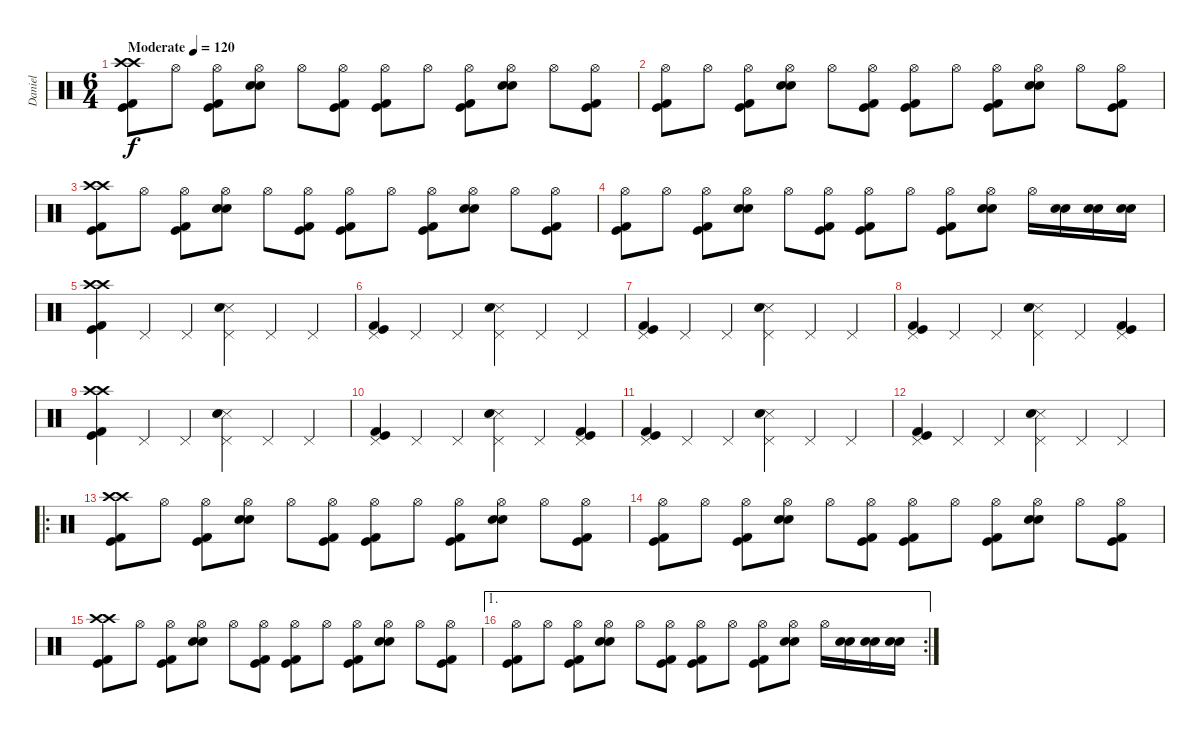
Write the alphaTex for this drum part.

\track ("Daniel" "Daniel") {instrument percussion}
\staff {score}
\articulation defaults
\ts (6 4)
\tempo (120 "Moderate")
\clef neutral
\ks c
("Crash high (hit)" "Crash high (hit)" "Kick (hit) 2" "Kick (hit)").8{dy f} "Hi-Hat (open)".8 ("Hi-Hat (open)" "Kick (hit) 2" "Kick (hit)").8 ("Hi-Hat (open)" "Snare (hit) 2" "Electric Snare (hit)").8 "Hi-Hat (open)".8 ("Hi-Hat (open)" "Kick (hit) 2" "Kick (hit)").8 ("Hi-Hat (open)" "Kick (hit) 2" "Kick (hit)").8 "Hi-Hat (open)".8 ("Hi-Hat (open)" "Kick (hit) 2" "Kick (hit)").8 ("Hi-Hat (open)" "Snare (hit) 2" "Electric Snare (hit)").8 "Hi-Hat (open)".8 ("Hi-Hat (open)" "Kick (hit) 2" "Kick (hit)").8 |
("Hi-Hat (open)" "Kick (hit) 2" "Kick (hit)").8 "Hi-Hat (open)".8 ("Hi-Hat (open)" "Kick (hit) 2" "Kick (hit)").8 ("Hi-Hat (open)" "Snare (hit) 2" "Electric Snare (hit)").8 "Hi-Hat (open)".8 ("Hi-Hat (open)" "Kick (hit) 2" "Kick (hit)").8 ("Hi-Hat (open)" "Kick (hit) 2" "Kick (hit)").8 "Hi-Hat (open)".8 ("Hi-Hat (open)" "Kick (hit) 2" "Kick (hit)").8 ("Hi-Hat (open)" "Snare (hit) 2" "Electric Snare (hit)").8 "Hi-Hat (open)".8 ("Hi-Hat (open)" "Kick (hit) 2" "Kick (hit)").8 |
("Crash high (hit)" "Crash high (hit)" "Kick (hit) 2" "Kick (hit)").8 "Hi-Hat (open)".8 ("Hi-Hat (open)" "Kick (hit) 2" "Kick (hit)").8 ("Hi-Hat (open)" "Snare (hit) 2" "Electric Snare (hit)").8 "Hi-Hat (open)".8 ("Hi-Hat (open)" "Kick (hit) 2" "Kick (hit)").8 ("Hi-Hat (open)" "Kick (hit) 2" "Kick (hit)").8 "Hi-Hat (open)".8 ("Hi-Hat (open)" "Kick (hit) 2" "Kick (hit)").8 ("Hi-Hat (open)" "Snare (hit) 2" "Electric Snare (hit)").8 "Hi-Hat (open)".8 ("Hi-Hat (open)" "Kick (hit) 2" "Kick (hit)").8 |
("Hi-Hat (open)" "Kick (hit) 2" "Kick (hit)").8 "Hi-Hat (open)".8 ("Hi-Hat (open)" "Kick (hit) 2" "Kick (hit)").8 ("Hi-Hat (open)" "Snare (hit) 2" "Electric Snare (hit)").8 "Hi-Hat (open)".8 ("Hi-Hat (open)" "Kick (hit) 2" "Kick (hit)").8 ("Hi-Hat (open)" "Kick (hit) 2" "Kick (hit)").8 "Hi-Hat (open)".8 ("Hi-Hat (open)" "Kick (hit) 2" "Kick (hit)").8 ("Hi-Hat (open)" "Snare (hit) 2" "Electric Snare (hit)").8 "Hi-Hat (open)".16 ("Snare (hit) 2" "Electric Snare (hit)").16 ("Snare (hit) 2" "Electric Snare (hit)").16 ("Snare (hit) 2" "Electric Snare (hit)").16 |
("Crash high (hit)" "Crash high (hit)" "Kick (hit) 2" "Kick (hit)").4 "Pedal Hi-Hat (hit)".4 "Pedal Hi-Hat (hit)".4 ("Pedal Hi-Hat (hit)" "Snare (side stick) 3" "Electric Snare (hit)").4 "Pedal Hi-Hat (hit)".4 "Pedal Hi-Hat (hit)".4 |
("Pedal Hi-Hat (hit)" "Kick (hit) 2" "Kick (hit)").4 "Pedal Hi-Hat (hit)".4 "Pedal Hi-Hat (hit)".4 ("Pedal Hi-Hat (hit)" "Snare (side stick) 3" "Electric Snare (hit)").4 "Pedal Hi-Hat (hit)".4 "Pedal Hi-Hat (hit)".4 |
("Pedal Hi-Hat (hit)" "Kick (hit) 2" "Kick (hit)").4 "Pedal Hi-Hat (hit)".4 "Pedal Hi-Hat (hit)".4 ("Pedal Hi-Hat (hit)" "Snare (side stick) 3" "Electric Snare (hit)").4 "Pedal Hi-Hat (hit)".4 "Pedal Hi-Hat (hit)".4 |
("Pedal Hi-Hat (hit)" "Kick (hit) 2" "Kick (hit)").4 "Pedal Hi-Hat (hit)".4 "Pedal Hi-Hat (hit)".4 ("Pedal Hi-Hat (hit)" "Snare (side stick) 3" "Electric Snare (hit)").4 "Pedal Hi-Hat (hit)".4 ("Pedal Hi-Hat (hit)" "Kick (hit) 2" "Kick (hit)").4 |
("Crash high (hit)" "Crash high (hit)" "Kick (hit) 2" "Kick (hit)").4 "Pedal Hi-Hat (hit)".4 "Pedal Hi-Hat (hit)".4 ("Pedal Hi-Hat (hit)" "Snare (side stick) 3" "Electric Snare (hit)").4 "Pedal Hi-Hat (hit)".4 "Pedal Hi-Hat (hit)".4 |
("Pedal Hi-Hat (hit)" "Kick (hit) 2" "Kick (hit)").4 "Pedal Hi-Hat (hit)".4 "Pedal Hi-Hat (hit)".4 ("Pedal Hi-Hat (hit)" "Snare (side stick) 3" "Electric Snare (hit)").4 "Pedal Hi-Hat (hit)".4 ("Pedal Hi-Hat (hit)" "Kick (hit) 2" "Kick (hit)").4 |
("Pedal Hi-Hat (hit)" "Kick (hit) 2" "Kick (hit)").4 "Pedal Hi-Hat (hit)".4 "Pedal Hi-Hat (hit)".4 ("Pedal Hi-Hat (hit)" "Snare (side stick) 3" "Electric Snare (hit)").4 "Pedal Hi-Hat (hit)".4 "Pedal Hi-Hat (hit)".4 |
("Pedal Hi-Hat (hit)" "Kick (hit) 2" "Kick (hit)").4 "Pedal Hi-Hat (hit)".4 "Pedal Hi-Hat (hit)".4 ("Pedal Hi-Hat (hit)" "Snare (side stick) 3" "Electric Snare (hit)").4 "Pedal Hi-Hat (hit)".4 "Pedal Hi-Hat (hit)".4 |
\ro
("Crash high (hit)" "Crash high (hit)" "Kick (hit) 2" "Kick (hit)").8 "Hi-Hat (open)".8 ("Hi-Hat (open)" "Kick (hit) 2" "Kick (hit)").8 ("Hi-Hat (open)" "Snare (hit) 2" "Electric Snare (hit)").8 "Hi-Hat (open)".8 ("Hi-Hat (open)" "Kick (hit) 2" "Kick (hit)").8 ("Hi-Hat (open)" "Kick (hit) 2" "Kick (hit)").8 "Hi-Hat (open)".8 ("Hi-Hat (open)" "Kick (hit) 2" "Kick (hit)").8 ("Hi-Hat (open)" "Snare (hit) 2" "Electric Snare (hit)").8 "Hi-Hat (open)".8 ("Hi-Hat (open)" "Kick (hit) 2" "Kick (hit)").8 |
("Hi-Hat (open)" "Kick (hit) 2" "Kick (hit)").8 "Hi-Hat (open)".8 ("Hi-Hat (open)" "Kick (hit) 2" "Kick (hit)").8 ("Hi-Hat (open)" "Snare (hit) 2" "Electric Snare (hit)").8 "Hi-Hat (open)".8 ("Hi-Hat (open)" "Kick (hit) 2" "Kick (hit)").8 ("Hi-Hat (open)" "Kick (hit) 2" "Kick (hit)").8 "Hi-Hat (open)".8 ("Hi-Hat (open)" "Kick (hit) 2" "Kick (hit)").8 ("Hi-Hat (open)" "Snare (hit) 2" "Electric Snare (hit)").8 "Hi-Hat (open)".8 ("Hi-Hat (open)" "Kick (hit) 2" "Kick (hit)").8 |
("Crash high (hit)" "Crash high (hit)" "Kick (hit) 2" "Kick (hit)").8 "Hi-Hat (open)".8 ("Hi-Hat (open)" "Kick (hit) 2" "Kick (hit)").8 ("Hi-Hat (open)" "Snare (hit) 2" "Electric Snare (hit)").8 "Hi-Hat (open)".8 ("Hi-Hat (open)" "Kick (hit) 2" "Kick (hit)").8 ("Hi-Hat (open)" "Kick (hit) 2" "Kick (hit)").8 "Hi-Hat (open)".8 ("Hi-Hat (open)" "Kick (hit) 2" "Kick (hit)").8 ("Hi-Hat (open)" "Snare (hit) 2" "Electric Snare (hit)").8 "Hi-Hat (open)".8 ("Hi-Hat (open)" "Kick (hit) 2" "Kick (hit)").8 |
\ae 1
\rc 2
("Hi-Hat (open)" "Kick (hit) 2" "Kick (hit)").8 "Hi-Hat (open)".8 ("Hi-Hat (open)" "Kick (hit) 2" "Kick (hit)").8 ("Hi-Hat (open)" "Snare (hit) 2" "Electric Snare (hit)").8 "Hi-Hat (open)".8 ("Hi-Hat (open)" "Kick (hit) 2" "Kick (hit)").8 ("Hi-Hat (open)" "Kick (hit) 2" "Kick (hit)").8 "Hi-Hat (open)".8 ("Hi-Hat (open)" "Kick (hit) 2" "Kick (hit)").8 ("Hi-Hat (open)" "Snare (hit) 2" "Electric Snare (hit)").8 "Hi-Hat (open)".16 ("Snare (hit) 2" "Electric Snare (hit)").16 ("Snare (hit) 2" "Electric Snare (hit)").16 ("Snare (hit) 2" "Electric Snare (hit)").16
